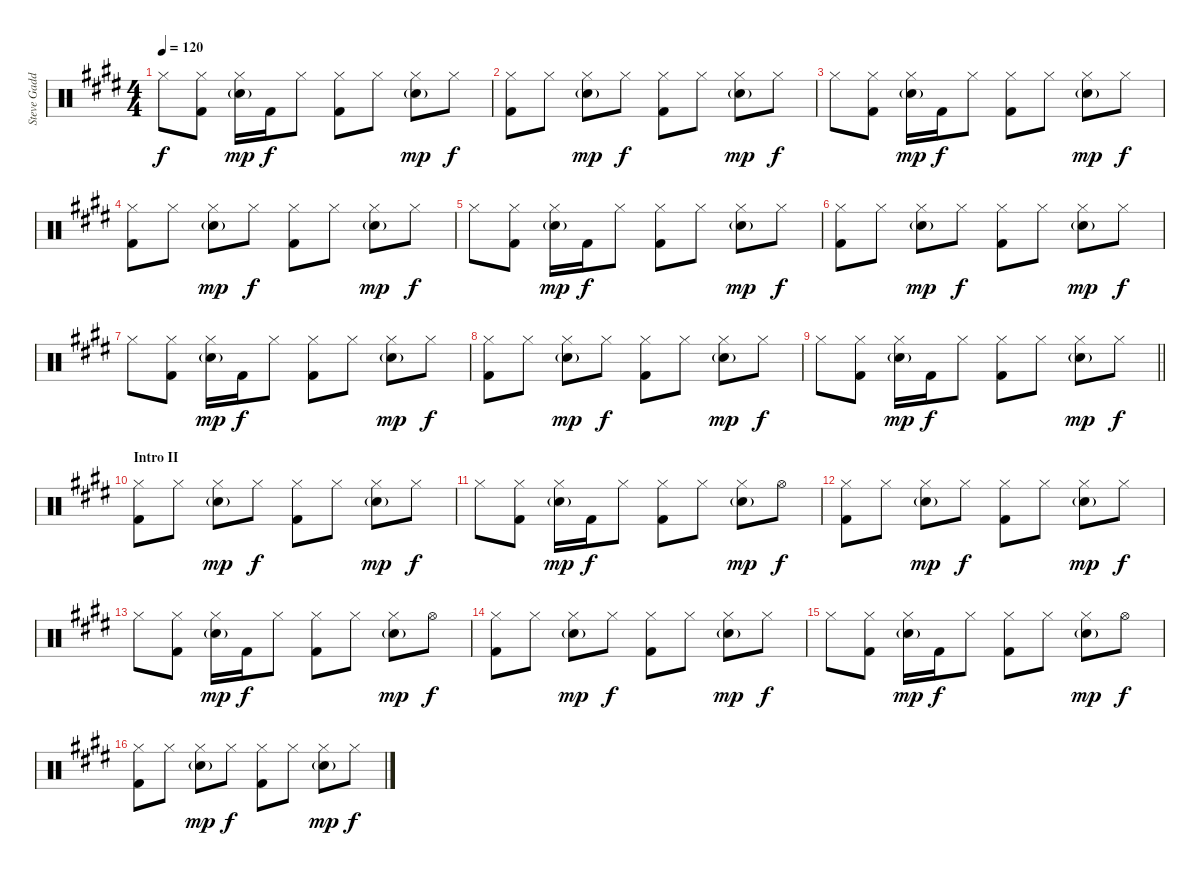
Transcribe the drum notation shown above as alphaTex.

\track ("Steve Gadd Drums" "Steve Gadd") {instrument percussion}
\staff {score}
\articulation defaults
\ts (4 4)
\tempo 120
\clef neutral
\ks e "Hi-Hat (closed)".8{dy f}
("Hi-Hat (closed)" "Kick (hit) 2").8 ("Hi-Hat (closed)" "Snare (hit) 2"{g}).16{dy mp} "Kick (hit) 2".16{dy f} "Hi-Hat (closed)".8 ("Hi-Hat (closed)" "Kick (hit) 2").8 "Hi-Hat (closed)".8 ("Hi-Hat (closed)" "Snare (hit) 2"{g}).8{dy mp} "Hi-Hat (closed)".8{dy f} |
("Hi-Hat (closed)" "Kick (hit) 2").8 "Hi-Hat (closed)".8 ("Hi-Hat (closed)" "Snare (hit) 2"{g}).8{dy mp} "Hi-Hat (closed)".8{dy f} ("Hi-Hat (closed)" "Kick (hit) 2").8 "Hi-Hat (closed)".8 ("Hi-Hat (closed)" "Snare (hit) 2"{g}).8{dy mp} "Hi-Hat (closed)".8{dy f} |
"Hi-Hat (closed)".8 ("Hi-Hat (closed)" "Kick (hit) 2").8 ("Hi-Hat (closed)" "Snare (hit) 2"{g}).16{dy mp} "Kick (hit) 2".16{dy f} "Hi-Hat (closed)".8 ("Hi-Hat (closed)" "Kick (hit) 2").8 "Hi-Hat (closed)".8 ("Hi-Hat (closed)" "Snare (hit) 2"{g}).8{dy mp} "Hi-Hat (closed)".8{dy f} |
("Hi-Hat (closed)" "Kick (hit) 2").8 "Hi-Hat (closed)".8 ("Hi-Hat (closed)" "Snare (hit) 2"{g}).8{dy mp} "Hi-Hat (closed)".8{dy f} ("Hi-Hat (closed)" "Kick (hit) 2").8 "Hi-Hat (closed)".8 ("Hi-Hat (closed)" "Snare (hit) 2"{g}).8{dy mp} "Hi-Hat (closed)".8{dy f} |
"Hi-Hat (closed)".8 ("Hi-Hat (closed)" "Kick (hit) 2").8 ("Hi-Hat (closed)" "Snare (hit) 2"{g}).16{dy mp} "Kick (hit) 2".16{dy f} "Hi-Hat (closed)".8 ("Hi-Hat (closed)" "Kick (hit) 2").8 "Hi-Hat (closed)".8 ("Hi-Hat (closed)" "Snare (hit) 2"{g}).8{dy mp} "Hi-Hat (closed)".8{dy f} |
("Hi-Hat (closed)" "Kick (hit) 2").8 "Hi-Hat (closed)".8 ("Hi-Hat (closed)" "Snare (hit) 2"{g}).8{dy mp} "Hi-Hat (closed)".8{dy f} ("Hi-Hat (closed)" "Kick (hit) 2").8 "Hi-Hat (closed)".8 ("Hi-Hat (closed)" "Snare (hit) 2"{g}).8{dy mp} "Hi-Hat (closed)".8{dy f} |
"Hi-Hat (closed)".8 ("Hi-Hat (closed)" "Kick (hit) 2").8 ("Hi-Hat (closed)" "Snare (hit) 2"{g}).16{dy mp} "Kick (hit) 2".16{dy f} "Hi-Hat (closed)".8 ("Hi-Hat (closed)" "Kick (hit) 2").8 "Hi-Hat (closed)".8 ("Hi-Hat (closed)" "Snare (hit) 2"{g}).8{dy mp} "Hi-Hat (closed)".8{dy f} |
("Hi-Hat (closed)" "Kick (hit) 2").8 "Hi-Hat (closed)".8 ("Hi-Hat (closed)" "Snare (hit) 2"{g}).8{dy mp} "Hi-Hat (closed)".8{dy f} ("Hi-Hat (closed)" "Kick (hit) 2").8 "Hi-Hat (closed)".8 ("Hi-Hat (closed)" "Snare (hit) 2"{g}).8{dy mp} "Hi-Hat (closed)".8{dy f} |
\barLineRight lightlight "Hi-Hat (closed)".8
("Hi-Hat (closed)" "Kick (hit) 2").8 ("Hi-Hat (closed)" "Snare (hit) 2"{g}).16{dy mp} "Kick (hit) 2".16{dy f} "Hi-Hat (closed)".8 ("Hi-Hat (closed)" "Kick (hit) 2").8 "Hi-Hat (closed)".8 ("Hi-Hat (closed)" "Snare (hit) 2"{g}).8{dy mp} "Hi-Hat (closed)".8{dy f} |
\section ("" "Intro II")
("Hi-Hat (closed)" "Kick (hit) 2").8 "Hi-Hat (closed)".8 ("Hi-Hat (closed)" "Snare (hit) 2"{g}).8{dy mp} "Hi-Hat (closed)".8{dy f} ("Hi-Hat (closed)" "Kick (hit) 2").8 "Hi-Hat (closed)".8 ("Hi-Hat (closed)" "Snare (hit) 2"{g}).8{dy mp} "Hi-Hat (closed)".8{dy f} |
"Hi-Hat (closed)".8 ("Hi-Hat (closed)" "Kick (hit) 2").8 ("Hi-Hat (closed)" "Snare (hit) 2"{g}).16{dy mp} "Kick (hit) 2".16{dy f} "Hi-Hat (closed)".8 ("Hi-Hat (closed)" "Kick (hit) 2").8 "Hi-Hat (closed)".8 ("Hi-Hat (closed)" "Snare (hit) 2"{g}).8{dy mp} "Hi-Hat (open)".8{dy f} |
("Hi-Hat (closed)" "Kick (hit) 2").8 "Hi-Hat (closed)".8 ("Hi-Hat (closed)" "Snare (hit) 2"{g}).8{dy mp} "Hi-Hat (closed)".8{dy f} ("Hi-Hat (closed)" "Kick (hit) 2").8 "Hi-Hat (closed)".8 ("Hi-Hat (closed)" "Snare (hit) 2"{g}).8{dy mp} "Hi-Hat (closed)".8{dy f} |
"Hi-Hat (closed)".8 ("Hi-Hat (closed)" "Kick (hit) 2").8 ("Hi-Hat (closed)" "Snare (hit) 2"{g}).16{dy mp} "Kick (hit) 2".16{dy f} "Hi-Hat (closed)".8 ("Hi-Hat (closed)" "Kick (hit) 2").8 "Hi-Hat (closed)".8 ("Hi-Hat (closed)" "Snare (hit) 2"{g}).8{dy mp} "Hi-Hat (open)".8{dy f} |
("Hi-Hat (closed)" "Kick (hit) 2").8 "Hi-Hat (closed)".8 ("Hi-Hat (closed)" "Snare (hit) 2"{g}).8{dy mp} "Hi-Hat (closed)".8{dy f} ("Hi-Hat (closed)" "Kick (hit) 2").8 "Hi-Hat (closed)".8 ("Hi-Hat (closed)" "Snare (hit) 2"{g}).8{dy mp} "Hi-Hat (closed)".8{dy f} |
"Hi-Hat (closed)".8 ("Hi-Hat (closed)" "Kick (hit) 2").8 ("Hi-Hat (closed)" "Snare (hit) 2"{g}).16{dy mp} "Kick (hit) 2".16{dy f} "Hi-Hat (closed)".8 ("Hi-Hat (closed)" "Kick (hit) 2").8 "Hi-Hat (closed)".8 ("Hi-Hat (closed)" "Snare (hit) 2"{g}).8{dy mp} "Hi-Hat (open)".8{dy f} |
("Hi-Hat (closed)" "Kick (hit) 2").8 "Hi-Hat (closed)".8 ("Hi-Hat (closed)" "Snare (hit) 2"{g}).8{dy mp} "Hi-Hat (closed)".8{dy f} ("Hi-Hat (closed)" "Kick (hit) 2").8 "Hi-Hat (closed)".8 ("Hi-Hat (closed)" "Snare (hit) 2"{g}).8{dy mp} "Hi-Hat (closed)".8{dy f}
